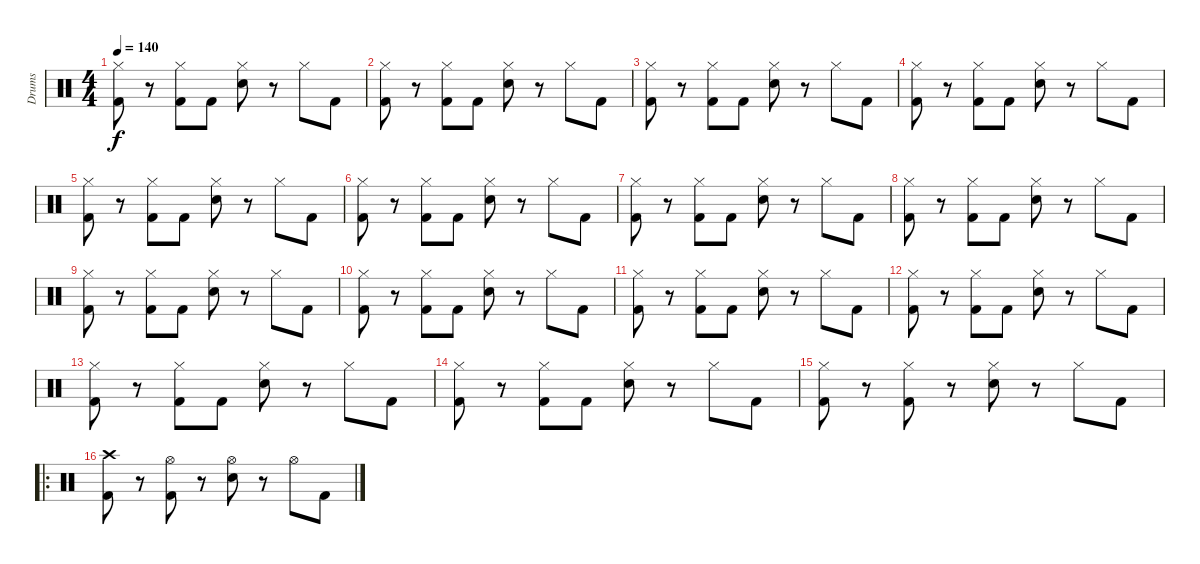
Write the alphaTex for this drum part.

\track ("Drums" "Drums") {instrument percussion}
\staff {score}
\articulation defaults
\ts (4 4)
\tempo 140
\clef neutral
\ks c
("Hi-Hat (closed)" "Kick (hit) 2").8{dy f} r.8 ("Hi-Hat (closed)" "Kick (hit) 2").8 "Kick (hit) 2".8 ("Hi-Hat (closed)" "Snare (hit) 2").8 r.8 "Hi-Hat (closed)".8 "Kick (hit) 2".8 |
("Hi-Hat (closed)" "Kick (hit) 2").8 r.8 ("Hi-Hat (closed)" "Kick (hit) 2").8 "Kick (hit) 2".8 ("Hi-Hat (closed)" "Snare (hit) 2").8 r.8 "Hi-Hat (closed)".8 "Kick (hit) 2".8 |
("Hi-Hat (closed)" "Kick (hit) 2").8 r.8 ("Hi-Hat (closed)" "Kick (hit) 2").8 "Kick (hit) 2".8 ("Hi-Hat (closed)" "Snare (hit) 2").8 r.8 "Hi-Hat (closed)".8 "Kick (hit) 2".8 |
("Hi-Hat (closed)" "Kick (hit) 2").8 r.8 ("Hi-Hat (closed)" "Kick (hit) 2").8 "Kick (hit) 2".8 ("Hi-Hat (closed)" "Snare (hit) 2").8 r.8 "Hi-Hat (closed)".8 "Kick (hit) 2".8 |
("Hi-Hat (closed)" "Kick (hit) 2").8 r.8 ("Hi-Hat (closed)" "Kick (hit) 2").8 "Kick (hit) 2".8 ("Hi-Hat (closed)" "Snare (hit) 2").8 r.8 "Hi-Hat (closed)".8 "Kick (hit) 2".8 |
("Hi-Hat (closed)" "Kick (hit) 2").8 r.8 ("Hi-Hat (closed)" "Kick (hit) 2").8 "Kick (hit) 2".8 ("Hi-Hat (closed)" "Snare (hit) 2").8 r.8 "Hi-Hat (closed)".8 "Kick (hit) 2".8 |
("Hi-Hat (closed)" "Kick (hit) 2").8 r.8 ("Hi-Hat (closed)" "Kick (hit) 2").8 "Kick (hit) 2".8 ("Hi-Hat (closed)" "Snare (hit) 2").8 r.8 "Hi-Hat (closed)".8 "Kick (hit) 2".8 |
("Hi-Hat (closed)" "Kick (hit) 2").8 r.8 ("Hi-Hat (closed)" "Kick (hit) 2").8 "Kick (hit) 2".8 ("Hi-Hat (closed)" "Snare (hit) 2").8 r.8 "Hi-Hat (closed)".8 "Kick (hit) 2".8 |
("Hi-Hat (closed)" "Kick (hit) 2").8 r.8 ("Hi-Hat (closed)" "Kick (hit) 2").8 "Kick (hit) 2".8 ("Hi-Hat (closed)" "Snare (hit) 2").8 r.8 "Hi-Hat (closed)".8 "Kick (hit) 2".8 |
("Hi-Hat (closed)" "Kick (hit) 2").8 r.8 ("Hi-Hat (closed)" "Kick (hit) 2").8 "Kick (hit) 2".8 ("Hi-Hat (closed)" "Snare (hit) 2").8 r.8 "Hi-Hat (closed)".8 "Kick (hit) 2".8 |
("Hi-Hat (closed)" "Kick (hit) 2").8 r.8 ("Hi-Hat (closed)" "Kick (hit) 2").8 "Kick (hit) 2".8 ("Hi-Hat (closed)" "Snare (hit) 2").8 r.8 "Hi-Hat (closed)".8 "Kick (hit) 2".8 |
("Hi-Hat (closed)" "Kick (hit) 2").8 r.8 ("Hi-Hat (closed)" "Kick (hit) 2").8 "Kick (hit) 2".8 ("Hi-Hat (closed)" "Snare (hit) 2").8 r.8 "Hi-Hat (closed)".8 "Kick (hit) 2".8 |
("Hi-Hat (closed)" "Kick (hit) 2").8 r.8 ("Hi-Hat (closed)" "Kick (hit) 2").8 "Kick (hit) 2".8 ("Hi-Hat (closed)" "Snare (hit) 2").8 r.8 "Hi-Hat (closed)".8 "Kick (hit) 2".8 |
("Hi-Hat (closed)" "Kick (hit) 2").8 r.8 ("Hi-Hat (closed)" "Kick (hit) 2").8 "Kick (hit) 2".8 ("Hi-Hat (closed)" "Snare (hit) 2").8 r.8 "Hi-Hat (closed)".8 "Kick (hit) 2".8 |
("Hi-Hat (closed)" "Kick (hit) 2").8 r.8 ("Hi-Hat (closed)" "Kick (hit) 2").8 r.8 ("Hi-Hat (closed)" "Snare (hit) 2").8 r.8 "Hi-Hat (closed)".8 "Kick (hit) 2".8 |
\ro
("Crash high (hit)" "Kick (hit) 2").8 r.8 ("Hi-Hat (open)" "Kick (hit) 2").8 r.8 ("Hi-Hat (open)" "Snare (hit) 2").8 r.8 "Hi-Hat (open)".8 "Kick (hit) 2".8
